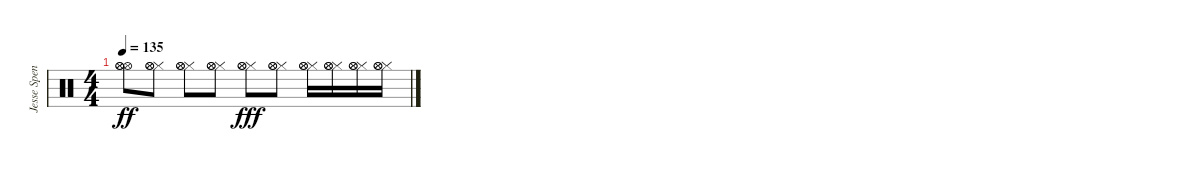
\track ("Jesse Spence" "Jesse Spen") {instrument percussion}
\staff {score}
\articulation defaults
\ts (4 4)
\tempo 135
\clef neutral
\ks c
("Hi-Hat (open)" "Hi-Hat (open)" "Hi-Hat (open)").8{dy ff} ("Hi-Hat (closed)" "Hi-Hat (open)" "Hi-Hat (open)").8 ("Hi-Hat (closed)" "Hi-Hat (open)" "Hi-Hat (open)").8 ("Hi-Hat (closed)" "Hi-Hat (open)" "Hi-Hat (open)").8 ("Hi-Hat (closed)" "Hi-Hat (open)" "Hi-Hat (open)").8{dy fff} ("Hi-Hat (closed)" "Hi-Hat (open)" "Hi-Hat (open)").8 ("Hi-Hat (closed)" "Hi-Hat (open)" "Hi-Hat (open)").16 ("Hi-Hat (closed)" "Hi-Hat (open)" "Hi-Hat (open)").16 ("Hi-Hat (closed)" "Hi-Hat (open)" "Hi-Hat (open)").16 ("Hi-Hat (closed)" "Hi-Hat (open)" "Hi-Hat (open)").16
